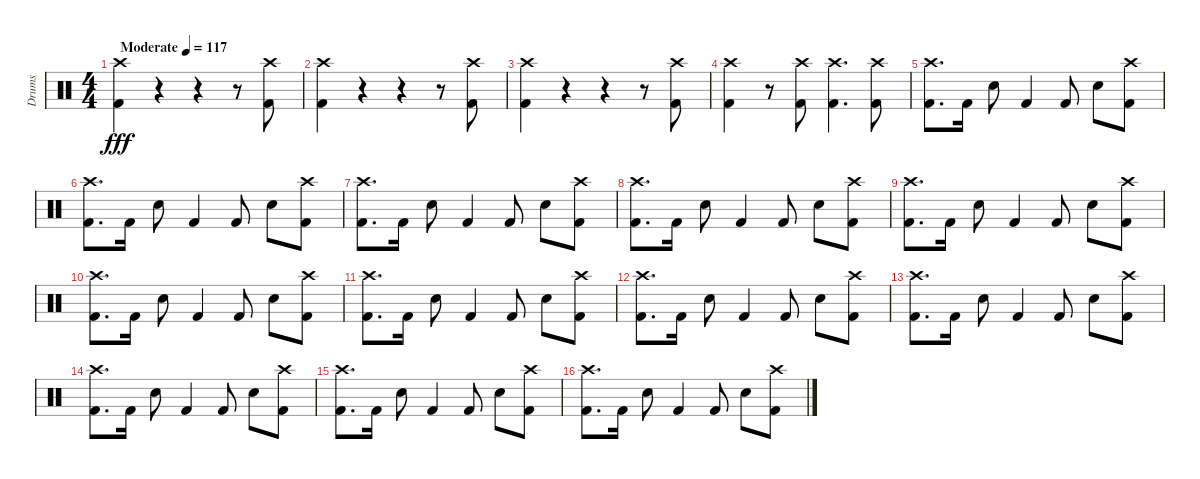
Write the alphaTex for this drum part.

\track ("Drums" "Drums") {instrument percussion}
\staff {score}
\articulation defaults
\ts (4 4)
\tempo (117 "Moderate")
\clef neutral
\ks c
("Crash high (hit)" "Kick (hit) 2").4{dy fff} r.4 r.4 r.8 ("Crash high (hit)" "Kick (hit) 2").8 |
("Crash high (hit)" "Kick (hit) 2").4 r.4 r.4 r.8 ("Crash high (hit)" "Kick (hit) 2").8 |
("Crash high (hit)" "Kick (hit) 2").4 r.4 r.4 r.8 ("Crash high (hit)" "Kick (hit) 2").8 |
("Crash high (hit)" "Kick (hit) 2").4 r.8 ("Crash high (hit)" "Kick (hit) 2").8 ("Crash high (hit)" "Kick (hit) 2").4{d} ("Crash high (hit)" "Kick (hit) 2").8 |
("Crash high (hit)" "Kick (hit) 2").8{d} "Kick (hit) 2".16 "Snare (hit) 2".8 "Kick (hit) 2".4 "Kick (hit) 2".8 "Snare (hit) 2".8 ("Crash high (hit)" "Kick (hit) 2").8 |
("Crash high (hit)" "Kick (hit) 2").8{d} "Kick (hit) 2".16 "Snare (hit) 2".8 "Kick (hit) 2".4 "Kick (hit) 2".8 "Snare (hit) 2".8 ("Crash high (hit)" "Kick (hit) 2").8 |
("Crash high (hit)" "Kick (hit) 2").8{d} "Kick (hit) 2".16 "Snare (hit) 2".8 "Kick (hit) 2".4 "Kick (hit) 2".8 "Snare (hit) 2".8 ("Crash high (hit)" "Kick (hit) 2").8 |
("Crash high (hit)" "Kick (hit) 2").8{d} "Kick (hit) 2".16 "Snare (hit) 2".8 "Kick (hit) 2".4 "Kick (hit) 2".8 "Snare (hit) 2".8 ("Crash high (hit)" "Kick (hit) 2").8 |
("Crash high (hit)" "Kick (hit) 2").8{d} "Kick (hit) 2".16 "Snare (hit) 2".8 "Kick (hit) 2".4 "Kick (hit) 2".8 "Snare (hit) 2".8 ("Crash high (hit)" "Kick (hit) 2").8 |
("Crash high (hit)" "Kick (hit) 2").8{d} "Kick (hit) 2".16 "Snare (hit) 2".8 "Kick (hit) 2".4 "Kick (hit) 2".8 "Snare (hit) 2".8 ("Crash high (hit)" "Kick (hit) 2").8 |
("Crash high (hit)" "Kick (hit) 2").8{d} "Kick (hit) 2".16 "Snare (hit) 2".8 "Kick (hit) 2".4 "Kick (hit) 2".8 "Snare (hit) 2".8 ("Crash high (hit)" "Kick (hit) 2").8 |
("Crash high (hit)" "Kick (hit) 2").8{d} "Kick (hit) 2".16 "Snare (hit) 2".8 "Kick (hit) 2".4 "Kick (hit) 2".8 "Snare (hit) 2".8 ("Crash high (hit)" "Kick (hit) 2").8 |
("Crash high (hit)" "Kick (hit) 2").8{d} "Kick (hit) 2".16 "Snare (hit) 2".8 "Kick (hit) 2".4 "Kick (hit) 2".8 "Snare (hit) 2".8 ("Crash high (hit)" "Kick (hit) 2").8 |
("Crash high (hit)" "Kick (hit) 2").8{d} "Kick (hit) 2".16 "Snare (hit) 2".8 "Kick (hit) 2".4 "Kick (hit) 2".8 "Snare (hit) 2".8 ("Crash high (hit)" "Kick (hit) 2").8 |
("Crash high (hit)" "Kick (hit) 2").8{d} "Kick (hit) 2".16 "Snare (hit) 2".8 "Kick (hit) 2".4 "Kick (hit) 2".8 "Snare (hit) 2".8 ("Crash high (hit)" "Kick (hit) 2").8 |
("Crash high (hit)" "Kick (hit) 2").8{d} "Kick (hit) 2".16 "Snare (hit) 2".8 "Kick (hit) 2".4 "Kick (hit) 2".8 "Snare (hit) 2".8 ("Crash high (hit)" "Kick (hit) 2").8
